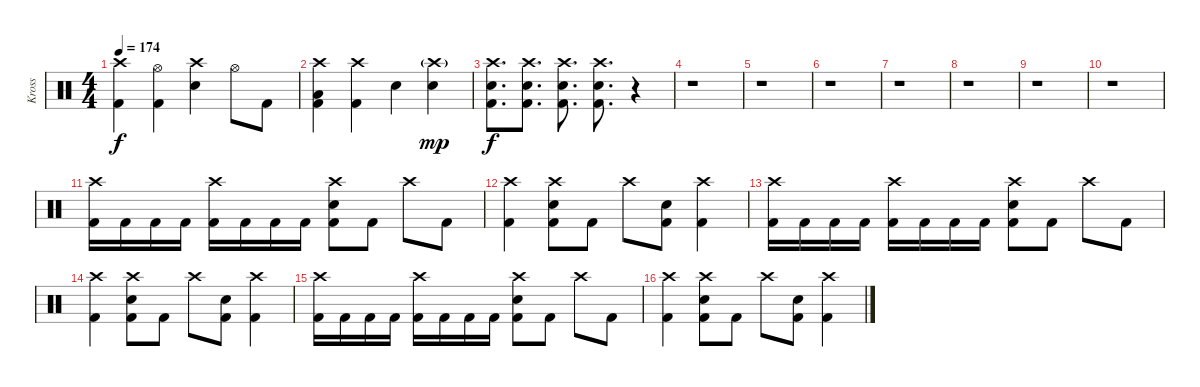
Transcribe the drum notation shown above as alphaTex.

\track ("Kross" "Kross") {instrument percussion}
\staff {score}
\articulation defaults
\ts (4 4)
\tempo 174
\clef neutral
\ks c
("Crash high (hit)" "Kick (hit) 2").4{dy f} ("Hi-Hat (open)" "Kick (hit) 2").4 ("Crash high (hit)" "Electric Snare (hit)").4 "Hi-Hat (open)".8 "Kick (hit) 2".8 |
("Crash high (hit)" "Low Tom (hit)" "Kick (hit) 2").4 ("Crash high (hit)" "Kick (hit) 2").4 "Electric Snare (hit)".4 ("Crash high (hit)"{g} "Electric Snare (hit)").4{dy mp} |
("Crash high (hit)" "Electric Snare (hit)" "Kick (hit) 2").8{d dy f} ("Crash high (hit)" "Electric Snare (hit)" "Kick (hit) 2").8{d} ("Crash high (hit)" "Electric Snare (hit)" "Kick (hit) 2").8{d} ("Crash high (hit)" "Electric Snare (hit)" "Kick (hit) 2").8{d} r.4 |
r.1 |
r.1 |
r.1 |
r.1 |
r.1 |
r.1 |
r.1 |
("Crash high (hit)" "Kick (hit) 2").16 "Kick (hit) 2".16 "Kick (hit) 2".16 "Kick (hit) 2".16 ("Crash high (hit)" "Kick (hit) 2").16 "Kick (hit) 2".16 "Kick (hit) 2".16 "Kick (hit) 2".16 ("Crash high (hit)" "Electric Snare (hit)" "Kick (hit) 2").8 "Kick (hit) 2".8 "Crash high (hit)".8 "Kick (hit) 2".8 |
("Crash high (hit)" "Kick (hit) 2").4 ("Crash high (hit)" "Electric Snare (hit)" "Kick (hit) 2").8 "Kick (hit) 2".8 "Crash high (hit)".8 ("Electric Snare (hit)" "Kick (hit) 2").8 ("Crash high (hit)" "Kick (hit) 2").4 |
("Crash high (hit)" "Kick (hit) 2").16 "Kick (hit) 2".16 "Kick (hit) 2".16 "Kick (hit) 2".16 ("Crash high (hit)" "Kick (hit) 2").16 "Kick (hit) 2".16 "Kick (hit) 2".16 "Kick (hit) 2".16 ("Crash high (hit)" "Electric Snare (hit)" "Kick (hit) 2").8 "Kick (hit) 2".8 "Crash high (hit)".8 "Kick (hit) 2".8 |
("Crash high (hit)" "Kick (hit) 2").4 ("Crash high (hit)" "Electric Snare (hit)" "Kick (hit) 2").8 "Kick (hit) 2".8 "Crash high (hit)".8 ("Electric Snare (hit)" "Kick (hit) 2").8 ("Crash high (hit)" "Kick (hit) 2").4 |
("Crash high (hit)" "Kick (hit) 2").16 "Kick (hit) 2".16 "Kick (hit) 2".16 "Kick (hit) 2".16 ("Crash high (hit)" "Kick (hit) 2").16 "Kick (hit) 2".16 "Kick (hit) 2".16 "Kick (hit) 2".16 ("Crash high (hit)" "Electric Snare (hit)" "Kick (hit) 2").8 "Kick (hit) 2".8 "Crash high (hit)".8 "Kick (hit) 2".8 |
("Crash high (hit)" "Kick (hit) 2").4 ("Crash high (hit)" "Electric Snare (hit)" "Kick (hit) 2").8 "Kick (hit) 2".8 "Crash high (hit)".8 ("Electric Snare (hit)" "Kick (hit) 2").8 ("Crash high (hit)" "Kick (hit) 2").4
